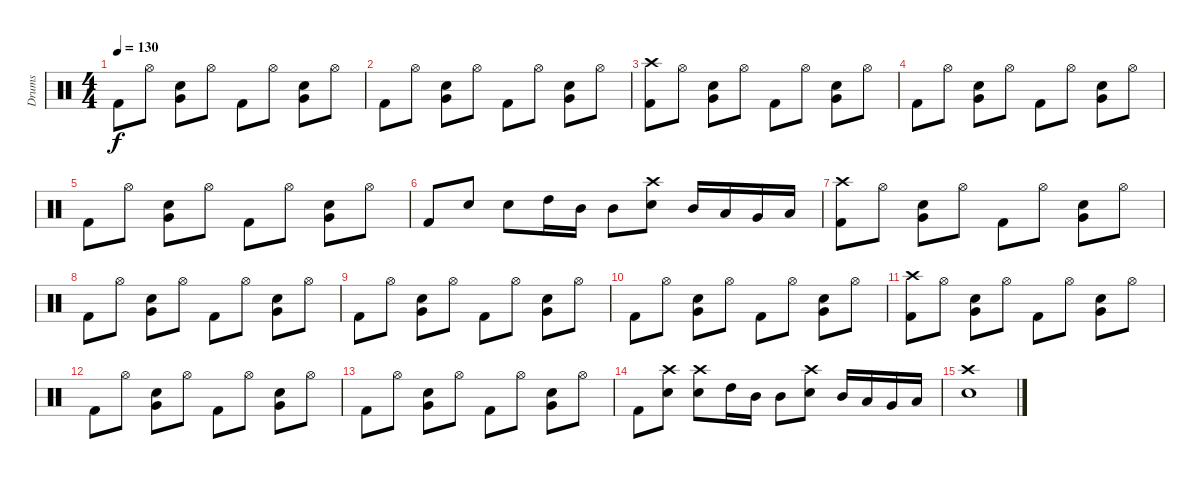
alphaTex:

\track ("Drums" "Drums") {instrument percussion}
\staff {score}
\articulation defaults
\ts (4 4)
\tempo 130
\clef neutral
\ks c "Kick (hit) 2".8{dy f} "Hi-Hat (open)".8
("Snare (hit) 2" "Very Low Tom (hit)").8 "Hi-Hat (open)".8 "Kick (hit) 2".8 "Hi-Hat (open)".8 ("Snare (hit) 2" "Very Low Tom (hit)").8 "Hi-Hat (open)".8 |
"Kick (hit) 2".8 "Hi-Hat (open)".8 ("Snare (hit) 2" "Very Low Tom (hit)").8 "Hi-Hat (open)".8 "Kick (hit) 2".8 "Hi-Hat (open)".8 ("Snare (hit) 2" "Very Low Tom (hit)").8 "Hi-Hat (open)".8 |
("Kick (hit) 2" "Crash high (hit)").8 "Hi-Hat (open)".8 ("Snare (hit) 2" "Very Low Tom (hit)").8 "Hi-Hat (open)".8 "Kick (hit) 2".8 "Hi-Hat (open)".8 ("Snare (hit) 2" "Very Low Tom (hit)").8 "Hi-Hat (open)".8 |
"Kick (hit) 2".8 "Hi-Hat (open)".8 ("Snare (hit) 2" "Very Low Tom (hit)").8 "Hi-Hat (open)".8 "Kick (hit) 2".8 "Hi-Hat (open)".8 ("Snare (hit) 2" "Very Low Tom (hit)").8 "Hi-Hat (open)".8 |
"Kick (hit) 2".8 "Hi-Hat (open)".8 ("Snare (hit) 2" "Very Low Tom (hit)").8 "Hi-Hat (open)".8 "Kick (hit) 2".8 "Hi-Hat (open)".8 ("Snare (hit) 2" "Very Low Tom (hit)").8 "Hi-Hat (open)".8 |
"Kick (hit) 2".8 "Electric Snare (hit)".8 "Electric Snare (hit)".8 "High Tom (hit)".16 "Mid Tom (hit)".16 "Mid Tom (hit)".8 ("Electric Snare (hit)" "Crash high (hit)").8 "Mid Tom (hit)".16 "Low Tom (hit)".16 "Very Low Tom (hit)".16 "Low Floor Tom (hit)".16 |
("Kick (hit) 2" "Crash high (hit)").8 "Hi-Hat (open)".8 ("Snare (hit) 2" "Very Low Tom (hit)").8 "Hi-Hat (open)".8 "Kick (hit) 2".8 "Hi-Hat (open)".8 ("Snare (hit) 2" "Very Low Tom (hit)").8 "Hi-Hat (open)".8 |
"Kick (hit) 2".8 "Hi-Hat (open)".8 ("Snare (hit) 2" "Very Low Tom (hit)").8 "Hi-Hat (open)".8 "Kick (hit) 2".8 "Hi-Hat (open)".8 ("Snare (hit) 2" "Very Low Tom (hit)").8 "Hi-Hat (open)".8 |
"Kick (hit) 2".8 "Hi-Hat (open)".8 ("Snare (hit) 2" "Very Low Tom (hit)").8 "Hi-Hat (open)".8 "Kick (hit) 2".8 "Hi-Hat (open)".8 ("Snare (hit) 2" "Very Low Tom (hit)").8 "Hi-Hat (open)".8 |
"Kick (hit) 2".8 "Hi-Hat (open)".8 ("Snare (hit) 2" "Very Low Tom (hit)").8 "Hi-Hat (open)".8 "Kick (hit) 2".8 "Hi-Hat (open)".8 ("Snare (hit) 2" "Very Low Tom (hit)").8 "Hi-Hat (open)".8 |
("Kick (hit) 2" "Crash high (hit)").8 "Hi-Hat (open)".8 ("Snare (hit) 2" "Very Low Tom (hit)").8 "Hi-Hat (open)".8 "Kick (hit) 2".8 "Hi-Hat (open)".8 ("Snare (hit) 2" "Very Low Tom (hit)").8 "Hi-Hat (open)".8 |
"Kick (hit) 2".8 "Hi-Hat (open)".8 ("Snare (hit) 2" "Very Low Tom (hit)").8 "Hi-Hat (open)".8 "Kick (hit) 2".8 "Hi-Hat (open)".8 ("Snare (hit) 2" "Very Low Tom (hit)").8 "Hi-Hat (open)".8 |
"Kick (hit) 2".8 "Hi-Hat (open)".8 ("Snare (hit) 2" "Very Low Tom (hit)").8 "Hi-Hat (open)".8 "Kick (hit) 2".8 "Hi-Hat (open)".8 ("Snare (hit) 2" "Very Low Tom (hit)").8 "Hi-Hat (open)".8 |
"Kick (hit) 2".8 ("Electric Snare (hit)" "Crash high (hit)").8 ("Electric Snare (hit)" "Crash high (hit)").8 "High Tom (hit)".16 "Mid Tom (hit)".16 "Mid Tom (hit)".8 ("Electric Snare (hit)" "Crash high (hit)").8 "Mid Tom (hit)".16 "Low Tom (hit)".16 "Very Low Tom (hit)".16 "Low Floor Tom (hit)".16 |
("Electric Snare (hit)" "Crash high (hit)").1
